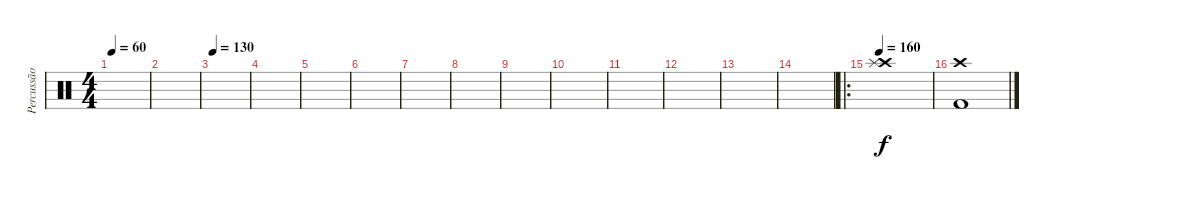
\track ("Percussão" "Percussão") {instrument percussion}
\staff {score}
\articulation defaults
\ts (4 4)
\tempo 60
\clef neutral
\ks c
|
|
\tempo 130
|
|
|
|
|
|
|
|
|
|
|
|
\ro
\tempo 160
("Crash high (hit)" "Splash (hit)").1 |
("Crash high (hit)" "Kick (hit) 2").1
